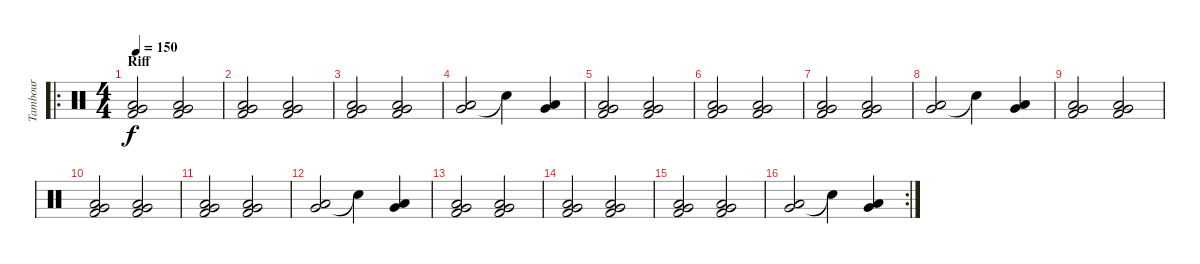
\track ("Tambour" "Tambour") {instrument percussion}
\staff {score}
\articulation defaults
\ro
\ts (4 4)
\section ("" "Riff")
\tempo 150
\clef neutral
\ks c
("Kick (hit) 2" "Very Low Tom (hit)" "Low Tom (hit)").2{dy f} ("Kick (hit) 2" "Very Low Tom (hit)" "Low Tom (hit)").2 |
("Kick (hit) 2" "Very Low Tom (hit)" "Low Tom (hit)").2 ("Kick (hit) 2" "Very Low Tom (hit)" "Low Tom (hit)").2 |
("Kick (hit) 2" "Very Low Tom (hit)" "Low Tom (hit)").2 ("Kick (hit) 2" "Very Low Tom (hit)" "Low Tom (hit)").2 |
("Very Low Tom (hit)" "Low Tom (hit)").2 "Snare (hit)"{t}.4 ("Very Low Tom (hit)" "Low Tom (hit)").4 |
("Kick (hit) 2" "Very Low Tom (hit)" "Low Tom (hit)").2 ("Kick (hit) 2" "Very Low Tom (hit)" "Low Tom (hit)").2 |
("Kick (hit) 2" "Very Low Tom (hit)" "Low Tom (hit)").2 ("Kick (hit) 2" "Very Low Tom (hit)" "Low Tom (hit)").2 |
("Kick (hit) 2" "Very Low Tom (hit)" "Low Tom (hit)").2 ("Kick (hit) 2" "Very Low Tom (hit)" "Low Tom (hit)").2 |
("Very Low Tom (hit)" "Low Tom (hit)").2 "Snare (hit)"{t}.4 ("Very Low Tom (hit)" "Low Tom (hit)").4 |
("Kick (hit) 2" "Very Low Tom (hit)" "Low Tom (hit)").2 ("Kick (hit) 2" "Very Low Tom (hit)" "Low Tom (hit)").2 |
("Kick (hit) 2" "Very Low Tom (hit)" "Low Tom (hit)").2 ("Kick (hit) 2" "Very Low Tom (hit)" "Low Tom (hit)").2 |
("Kick (hit) 2" "Very Low Tom (hit)" "Low Tom (hit)").2 ("Kick (hit) 2" "Very Low Tom (hit)" "Low Tom (hit)").2 |
("Very Low Tom (hit)" "Low Tom (hit)").2 "Snare (hit)"{t}.4 ("Very Low Tom (hit)" "Low Tom (hit)").4 |
("Kick (hit) 2" "Very Low Tom (hit)" "Low Tom (hit)").2 ("Kick (hit) 2" "Very Low Tom (hit)" "Low Tom (hit)").2 |
("Kick (hit) 2" "Very Low Tom (hit)" "Low Tom (hit)").2 ("Kick (hit) 2" "Very Low Tom (hit)" "Low Tom (hit)").2 |
("Kick (hit) 2" "Very Low Tom (hit)" "Low Tom (hit)").2 ("Kick (hit) 2" "Very Low Tom (hit)" "Low Tom (hit)").2 |
\rc 2
("Very Low Tom (hit)" "Low Tom (hit)").2 "Snare (hit)"{t}.4 ("Very Low Tom (hit)" "Low Tom (hit)").4
